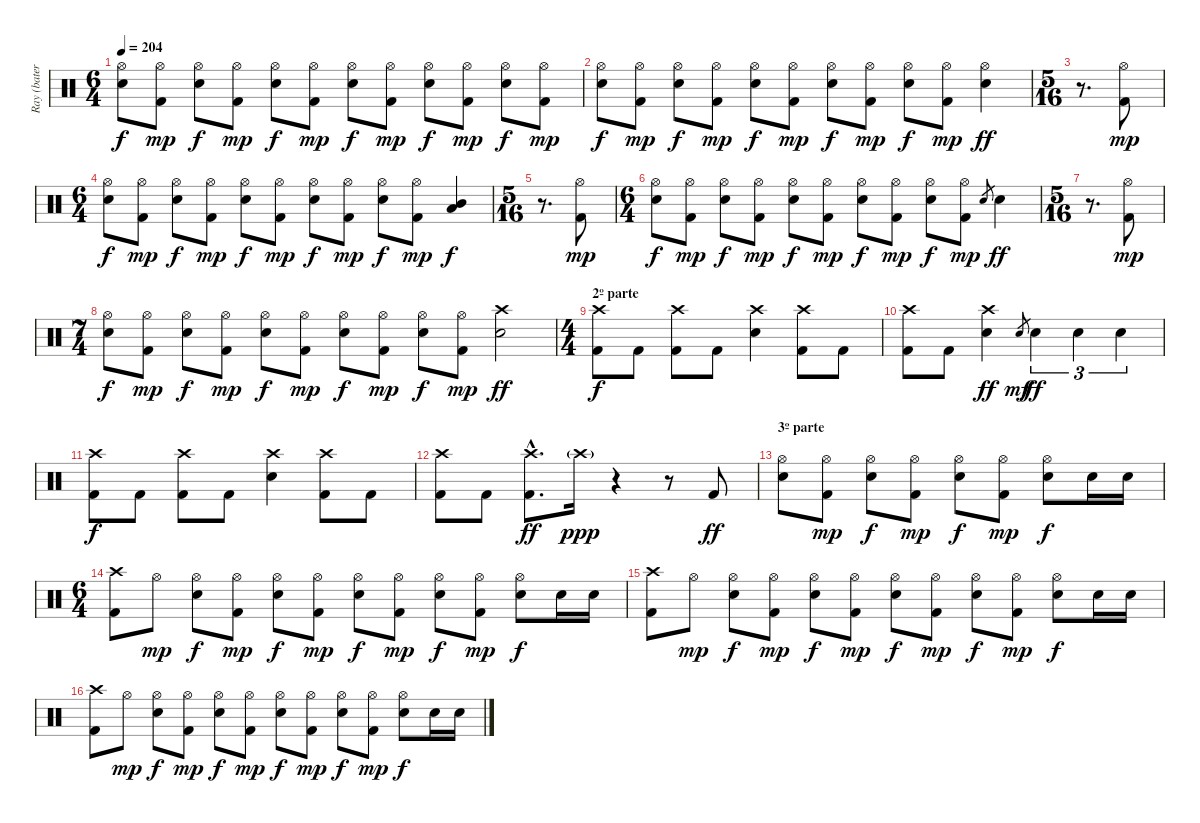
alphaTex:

\track ("Ray (batería)" "Ray (bater") {instrument percussion}
\staff {score}
\articulation defaults
\ts (6 4)
\tempo 204
\clef neutral
\ks c
("Hi-Hat (open)" "Snare (hit) 2").8{dy f} ("Hi-Hat (open)" "Kick (hit) 2").8{dy mp} ("Hi-Hat (open)" "Snare (hit) 2").8{dy f} ("Hi-Hat (open)" "Kick (hit) 2").8{dy mp} ("Hi-Hat (open)" "Snare (hit) 2").8{dy f} ("Hi-Hat (open)" "Kick (hit) 2").8{dy mp} ("Hi-Hat (open)" "Snare (hit) 2").8{dy f} ("Hi-Hat (open)" "Kick (hit) 2").8{dy mp} ("Hi-Hat (open)" "Snare (hit) 2").8{dy f} ("Hi-Hat (open)" "Kick (hit) 2").8{dy mp} ("Hi-Hat (open)" "Snare (hit) 2").8{dy f} ("Hi-Hat (open)" "Kick (hit) 2").8{dy mp} |
("Hi-Hat (open)" "Snare (hit) 2").8{dy f} ("Hi-Hat (open)" "Kick (hit) 2").8{dy mp} ("Hi-Hat (open)" "Snare (hit) 2").8{dy f} ("Hi-Hat (open)" "Kick (hit) 2").8{dy mp} ("Hi-Hat (open)" "Snare (hit) 2").8{dy f} ("Hi-Hat (open)" "Kick (hit) 2").8{dy mp} ("Hi-Hat (open)" "Snare (hit) 2").8{dy f} ("Hi-Hat (open)" "Kick (hit) 2").8{dy mp} ("Hi-Hat (open)" "Snare (hit) 2").8{dy f} ("Hi-Hat (open)" "Kick (hit) 2").8{dy mp} ("Hi-Hat (open)" "Snare (hit) 2").4{dy ff} |
\ts (5 16)
r.8{d} ("Hi-Hat (open)" "Kick (hit) 2").8{dy mp} |
\ts (6 4)
("Hi-Hat (open)" "Snare (hit) 2").8{dy f} ("Hi-Hat (open)" "Kick (hit) 2").8{dy mp} ("Hi-Hat (open)" "Snare (hit) 2").8{dy f} ("Hi-Hat (open)" "Kick (hit) 2").8{dy mp} ("Hi-Hat (open)" "Snare (hit) 2").8{dy f} ("Hi-Hat (open)" "Kick (hit) 2").8{dy mp} ("Hi-Hat (open)" "Snare (hit) 2").8{dy f} ("Hi-Hat (open)" "Kick (hit) 2").8{dy mp} ("Hi-Hat (open)" "Snare (hit) 2").8{dy f} ("Hi-Hat (open)" "Kick (hit) 2").8{dy mp} ("Mid Tom (hit)" "Low Tom (hit)").4{dy f} |
\ts (5 16)
r.8{d} ("Hi-Hat (open)" "Kick (hit) 2").8{dy mp} |
\ts (6 4)
("Hi-Hat (open)" "Snare (hit) 2").8{dy f} ("Hi-Hat (open)" "Kick (hit) 2").8{dy mp} ("Hi-Hat (open)" "Snare (hit) 2").8{dy f} ("Hi-Hat (open)" "Kick (hit) 2").8{dy mp} ("Hi-Hat (open)" "Snare (hit) 2").8{dy f} ("Hi-Hat (open)" "Kick (hit) 2").8{dy mp} ("Hi-Hat (open)" "Snare (hit) 2").8{dy f} ("Hi-Hat (open)" "Kick (hit) 2").8{dy mp} ("Hi-Hat (open)" "Snare (hit) 2").8{dy f} ("Hi-Hat (open)" "Kick (hit) 2").8{dy mp} "Snare (hit) 2".8{gr} "Snare (hit) 2".4{dy ff} |
\ts (5 16)
r.8{d} ("Hi-Hat (open)" "Kick (hit) 2").8{dy mp} |
\ts (7 4)
("Hi-Hat (open)" "Snare (hit) 2").8{dy f} ("Hi-Hat (open)" "Kick (hit) 2").8{dy mp} ("Hi-Hat (open)" "Snare (hit) 2").8{dy f} ("Hi-Hat (open)" "Kick (hit) 2").8{dy mp} ("Hi-Hat (open)" "Snare (hit) 2").8{dy f} ("Hi-Hat (open)" "Kick (hit) 2").8{dy mp} ("Hi-Hat (open)" "Snare (hit) 2").8{dy f} ("Hi-Hat (open)" "Kick (hit) 2").8{dy mp} ("Hi-Hat (open)" "Snare (hit) 2").8{dy f} ("Hi-Hat (open)" "Kick (hit) 2").8{dy mp} ("Crash high (hit)" "Snare (hit) 2").2{dy ff} |
\ts (4 4)
\section ("" "2º parte")
("Crash high (hit)" "Kick (hit) 2").8{dy f} "Kick (hit) 2".8 ("Crash high (hit)" "Kick (hit) 2").8 "Kick (hit) 2".8 ("Crash high (hit)" "Snare (hit) 2").4 ("Crash high (hit)" "Kick (hit) 2").8 "Kick (hit) 2".8 |
("Crash high (hit)" "Kick (hit) 2").8 "Kick (hit) 2".8 ("Crash high (hit)" "Snare (hit) 2").4{dy ff} "Snare (hit) 2".8{gr dy mf} "Snare (hit) 2".4{tu (3 2) dy ff} "Snare (hit) 2".4{tu (3 2)} "Snare (hit) 2".4{tu (3 2)} |
("Crash high (hit)" "Kick (hit) 2").8{dy f} "Kick (hit) 2".8 ("Crash high (hit)" "Kick (hit) 2").8 "Kick (hit) 2".8 ("Crash high (hit)" "Snare (hit) 2").4 ("Crash high (hit)" "Kick (hit) 2").8 "Kick (hit) 2".8 |
("Crash high (hit)" "Kick (hit) 2").8 "Kick (hit) 2".8 ("Crash high (hit)"{hac} "Kick (hit) 2"{hac}).8{d dy ff} "Crash high (hit)"{g}.16{dy ppp volume 0} r.4 r.8 "Kick (hit) 2".8{dy ff volume 15} |
\section ("" "3º parte")
("Hi-Hat (open)" "Snare (hit) 2").8 ("Hi-Hat (open)" "Kick (hit) 2").8{dy mp} ("Hi-Hat (open)" "Snare (hit) 2").8{dy f} ("Hi-Hat (open)" "Kick (hit) 2").8{dy mp} ("Hi-Hat (open)" "Snare (hit) 2").8{dy f} ("Hi-Hat (open)" "Kick (hit) 2").8{dy mp} ("Hi-Hat (open)" "Snare (hit) 2").8{dy f} "Snare (hit) 2".16 "Snare (hit) 2".16 |
\ts (6 4)
("Crash high (hit)" "Kick (hit) 2").8 "Hi-Hat (open)".8{dy mp} ("Hi-Hat (open)" "Snare (hit) 2").8{dy f} ("Hi-Hat (open)" "Kick (hit) 2").8{dy mp} ("Hi-Hat (open)" "Snare (hit) 2").8{dy f} ("Hi-Hat (open)" "Kick (hit) 2").8{dy mp} ("Hi-Hat (open)" "Snare (hit) 2").8{dy f} ("Hi-Hat (open)" "Kick (hit) 2").8{dy mp} ("Hi-Hat (open)" "Snare (hit) 2").8{dy f} ("Hi-Hat (open)" "Kick (hit) 2").8{dy mp} ("Hi-Hat (open)" "Snare (hit) 2").8{dy f} "Snare (hit) 2".16 "Snare (hit) 2".16 |
("Crash high (hit)" "Kick (hit) 2").8 "Hi-Hat (open)".8{dy mp} ("Hi-Hat (open)" "Snare (hit) 2").8{dy f} ("Hi-Hat (open)" "Kick (hit) 2").8{dy mp} ("Hi-Hat (open)" "Snare (hit) 2").8{dy f} ("Hi-Hat (open)" "Kick (hit) 2").8{dy mp} ("Hi-Hat (open)" "Snare (hit) 2").8{dy f} ("Hi-Hat (open)" "Kick (hit) 2").8{dy mp} ("Hi-Hat (open)" "Snare (hit) 2").8{dy f} ("Hi-Hat (open)" "Kick (hit) 2").8{dy mp} ("Hi-Hat (open)" "Snare (hit) 2").8{dy f} "Snare (hit) 2".16 "Snare (hit) 2".16 |
("Crash high (hit)" "Kick (hit) 2").8 "Hi-Hat (open)".8{dy mp} ("Hi-Hat (open)" "Snare (hit) 2").8{dy f} ("Hi-Hat (open)" "Kick (hit) 2").8{dy mp} ("Hi-Hat (open)" "Snare (hit) 2").8{dy f} ("Hi-Hat (open)" "Kick (hit) 2").8{dy mp} ("Hi-Hat (open)" "Snare (hit) 2").8{dy f} ("Hi-Hat (open)" "Kick (hit) 2").8{dy mp} ("Hi-Hat (open)" "Snare (hit) 2").8{dy f} ("Hi-Hat (open)" "Kick (hit) 2").8{dy mp} ("Hi-Hat (open)" "Snare (hit) 2").8{dy f} "Snare (hit) 2".16 "Snare (hit) 2".16
